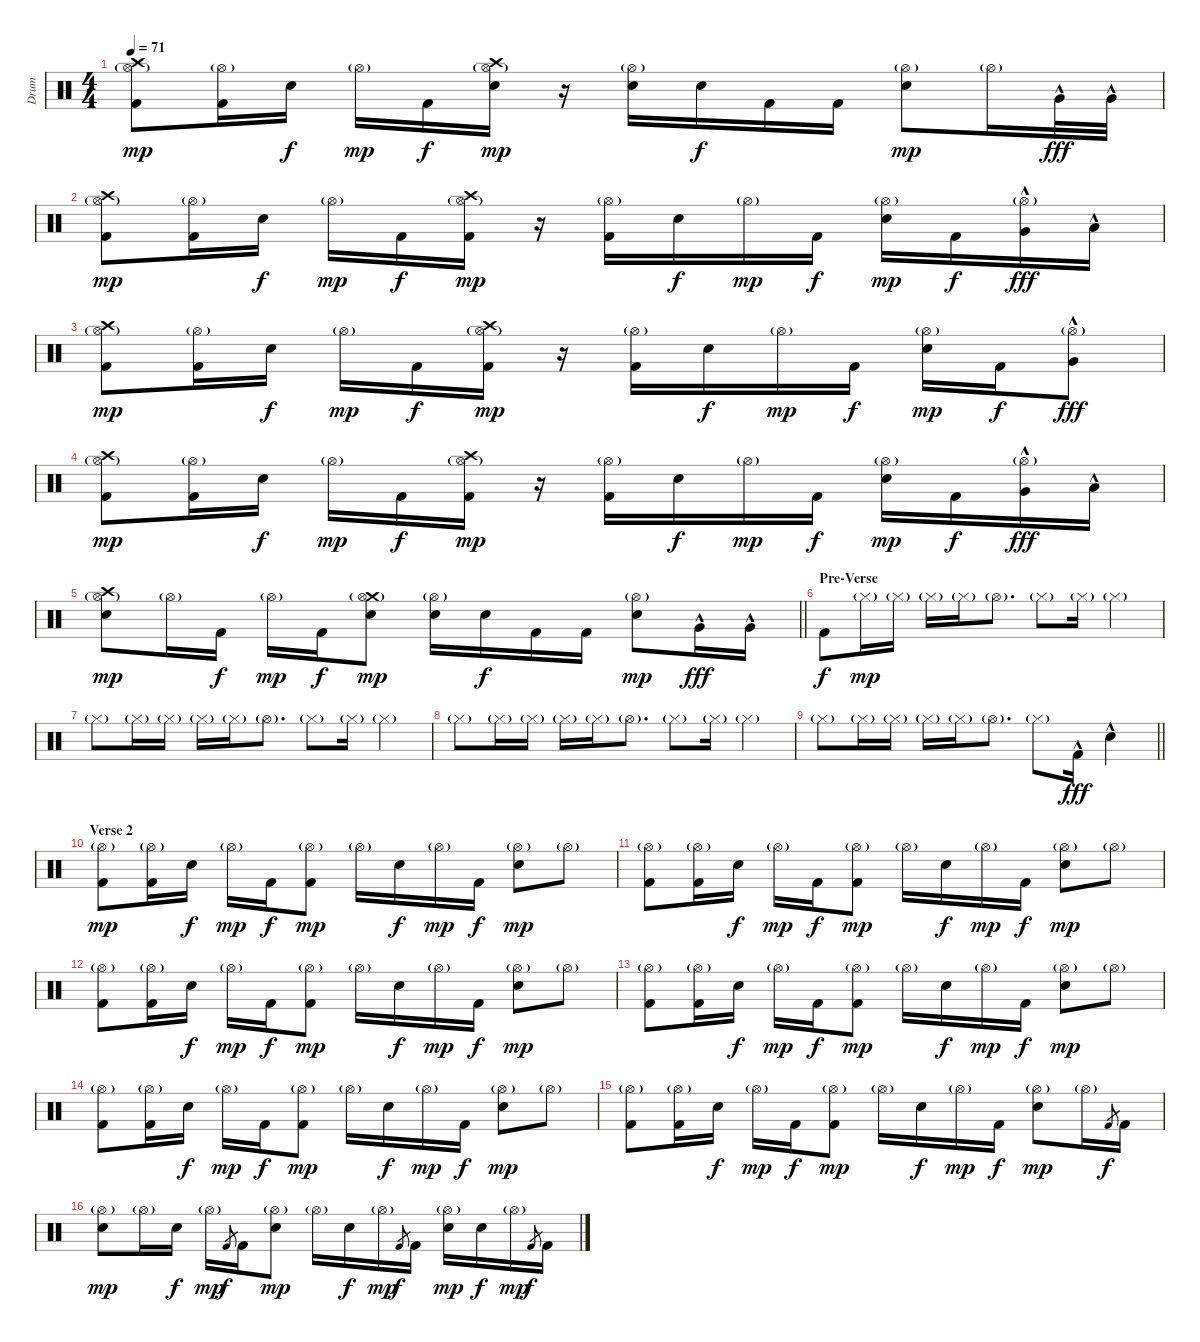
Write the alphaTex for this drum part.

\track ("Drum" "Drum") {instrument percussion}
\staff {score}
\articulation defaults
\ts (4 4)
\tempo 71
\clef neutral
\ks c
("Crash high (hit)" "Hi-Hat (open)"{g} "Kick (hit) 2").8{dy mp} ("Hi-Hat (open)"{g} "Kick (hit) 2").16 "Electric Snare (hit)".16{dy f} "Hi-Hat (open)"{g}.16{dy mp} "Kick (hit) 2".16{dy f} ("Crash high (hit)" "Hi-Hat (open)"{g} "Electric Snare (hit)").16{dy mp} r.16 ("Hi-Hat (open)"{g} "Electric Snare (hit)").16 "Electric Snare (hit)".16{dy f} "Kick (hit) 2".16 "Kick (hit) 2".16 ("Hi-Hat (open)"{g} "Electric Snare (hit)").8{dy mp} "Hi-Hat (open)"{g}.16 "Very Low Tom (hit)"{hac}.32{dy fff} "Very Low Tom (hit)"{hac}.32 |
("Crash high (hit)" "Hi-Hat (open)"{g} "Kick (hit) 2").8{dy mp} ("Hi-Hat (open)"{g} "Kick (hit) 2").16 "Electric Snare (hit)".16{dy f} "Hi-Hat (open)"{g}.16{dy mp} "Kick (hit) 2".16{dy f} ("Crash high (hit)" "Hi-Hat (open)"{g} "Kick (hit) 2").16{dy mp} r.16 ("Hi-Hat (open)"{g} "Kick (hit) 2").16 "Electric Snare (hit)".16{dy f} "Hi-Hat (open)"{g}.16{dy mp} "Kick (hit) 2".16{dy f} ("Hi-Hat (open)"{g} "Electric Snare (hit)").16{dy mp} "Kick (hit) 2".16{dy f} ("Hi-Hat (open)"{g} "Very Low Tom (hit)"{hac}).16{dy fff} "Low Floor Tom (hit)"{hac}.16 |
("Crash high (hit)" "Hi-Hat (open)"{g} "Kick (hit) 2").8{dy mp} ("Hi-Hat (open)"{g} "Kick (hit) 2").16 "Electric Snare (hit)".16{dy f} "Hi-Hat (open)"{g}.16{dy mp} "Kick (hit) 2".16{dy f} ("Crash high (hit)" "Hi-Hat (open)"{g} "Kick (hit) 2").16{dy mp} r.16 ("Hi-Hat (open)"{g} "Kick (hit) 2").16 "Electric Snare (hit)".16{dy f} "Hi-Hat (open)"{g}.16{dy mp} "Kick (hit) 2".16{dy f} ("Hi-Hat (open)"{g} "Electric Snare (hit)").16{dy mp} "Kick (hit) 2".16{dy f} ("Hi-Hat (open)"{g} "Very Low Tom (hit)"{hac}).8{dy fff} |
("Crash high (hit)" "Hi-Hat (open)"{g} "Kick (hit) 2").8{dy mp} ("Hi-Hat (open)"{g} "Kick (hit) 2").16 "Electric Snare (hit)".16{dy f} "Hi-Hat (open)"{g}.16{dy mp} "Kick (hit) 2".16{dy f} ("Crash high (hit)" "Hi-Hat (open)"{g} "Kick (hit) 2").16{dy mp} r.16 ("Hi-Hat (open)"{g} "Kick (hit) 2").16 "Electric Snare (hit)".16{dy f} "Hi-Hat (open)"{g}.16{dy mp} "Kick (hit) 2".16{dy f} ("Hi-Hat (open)"{g} "Electric Snare (hit)").16{dy mp} "Kick (hit) 2".16{dy f} ("Hi-Hat (open)"{g} "Very Low Tom (hit)"{hac}).16{dy fff} "Low Floor Tom (hit)"{hac}.16 |
\barLineRight lightlight
("Crash high (hit)" "Hi-Hat (open)"{g} "Electric Snare (hit)").8{dy mp} "Hi-Hat (open)"{g}.16 "Kick (hit) 2".16{dy f} "Hi-Hat (open)"{g}.16{dy mp} "Kick (hit) 2".16{dy f} ("Crash medium (hit)" "Hi-Hat (open)"{g} "Electric Snare (hit)").8{dy mp} ("Hi-Hat (open)"{g} "Electric Snare (hit)").16 "Electric Snare (hit)".16{dy f} "Kick (hit) 2".16 "Kick (hit) 2".16 ("Hi-Hat (open)"{g} "Electric Snare (hit)").8{dy mp} "Very Low Tom (hit)"{hac}.16{dy fff} "Very Low Tom (hit)"{hac}.16 |
\section ("" "Pre-Verse")
"Kick (hit) 2".8{dy f} "Hi-Hat (closed)"{g}.16{dy mp} "Hi-Hat (closed)"{g}.16 "Hi-Hat (closed)"{g}.16 "Hi-Hat (closed)"{g}.16 "Hi-Hat (open)"{g}.8{d} "Hi-Hat (closed)"{g}.8 "Hi-Hat (closed)"{g}.16 "Hi-Hat (closed)"{g}.4 |
"Hi-Hat (closed)"{g}.8 "Hi-Hat (closed)"{g}.16 "Hi-Hat (closed)"{g}.16 "Hi-Hat (closed)"{g}.16 "Hi-Hat (closed)"{g}.16 "Hi-Hat (open)"{g}.8{d} "Hi-Hat (closed)"{g}.8 "Hi-Hat (closed)"{g}.16 "Hi-Hat (closed)"{g}.4 |
"Hi-Hat (closed)"{g}.8 "Hi-Hat (closed)"{g}.16 "Hi-Hat (closed)"{g}.16 "Hi-Hat (closed)"{g}.16 "Hi-Hat (closed)"{g}.16 "Hi-Hat (open)"{g}.8{d} "Hi-Hat (closed)"{g}.8 "Hi-Hat (closed)"{g}.16 "Hi-Hat (closed)"{g}.4 |
\barLineRight lightlight "Hi-Hat (closed)"{g}.8 "Hi-Hat (closed)"{g}.16 "Hi-Hat (closed)"{g}.16 "Hi-Hat (closed)"{g}.16 "Hi-Hat (closed)"{g}.16 "Hi-Hat (open)"{g}.8{d} "Hi-Hat (closed)"{g}.8 "Kick (hit) 2"{hac}.16{dy fff} "Electric Snare (hit)"{hac}.4
|
\section ("" "Verse 2")
("Hi-Hat (open)"{g} "Kick (hit) 2").8{dy mp} ("Hi-Hat (open)"{g} "Kick (hit) 2").16 "Electric Snare (hit)".16{dy f} "Hi-Hat (open)"{g}.16{dy mp} "Kick (hit) 2".16{dy f} ("Hi-Hat (open)"{g} "Kick (hit) 2").8{dy mp} "Hi-Hat (open)"{g}.16 "Electric Snare (hit)".16{dy f} "Hi-Hat (open)"{g}.16{dy mp} "Kick (hit) 2".16{dy f} ("Hi-Hat (open)"{g} "Electric Snare (hit)").8{dy mp} "Hi-Hat (open)"{g}.8 |
("Hi-Hat (open)"{g} "Kick (hit) 2").8 ("Hi-Hat (open)"{g} "Kick (hit) 2").16 "Electric Snare (hit)".16{dy f} "Hi-Hat (open)"{g}.16{dy mp} "Kick (hit) 2".16{dy f} ("Hi-Hat (open)"{g} "Kick (hit) 2").8{dy mp} "Hi-Hat (open)"{g}.16 "Electric Snare (hit)".16{dy f} "Hi-Hat (open)"{g}.16{dy mp} "Kick (hit) 2".16{dy f} ("Hi-Hat (open)"{g} "Electric Snare (hit)").8{dy mp} "Hi-Hat (open)"{g}.8 |
("Hi-Hat (open)"{g} "Kick (hit) 2").8 ("Hi-Hat (open)"{g} "Kick (hit) 2").16 "Electric Snare (hit)".16{dy f} "Hi-Hat (open)"{g}.16{dy mp} "Kick (hit) 2".16{dy f} ("Hi-Hat (open)"{g} "Kick (hit) 2").8{dy mp} "Hi-Hat (open)"{g}.16 "Electric Snare (hit)".16{dy f} "Hi-Hat (open)"{g}.16{dy mp} "Kick (hit) 2".16{dy f} ("Hi-Hat (open)"{g} "Electric Snare (hit)").8{dy mp} "Hi-Hat (open)"{g}.8 |
("Hi-Hat (open)"{g} "Kick (hit) 2").8 ("Hi-Hat (open)"{g} "Kick (hit) 2").16 "Electric Snare (hit)".16{dy f} "Hi-Hat (open)"{g}.16{dy mp} "Kick (hit) 2".16{dy f} ("Hi-Hat (open)"{g} "Kick (hit) 2").8{dy mp} "Hi-Hat (open)"{g}.16 "Electric Snare (hit)".16{dy f} "Hi-Hat (open)"{g}.16{dy mp} "Kick (hit) 2".16{dy f} ("Hi-Hat (open)"{g} "Electric Snare (hit)").8{dy mp} "Hi-Hat (open)"{g}.8 |
("Hi-Hat (open)"{g} "Kick (hit) 2").8 ("Hi-Hat (open)"{g} "Kick (hit) 2").16 "Electric Snare (hit)".16{dy f} "Hi-Hat (open)"{g}.16{dy mp} "Kick (hit) 2".16{dy f} ("Hi-Hat (open)"{g} "Kick (hit) 2").8{dy mp} "Hi-Hat (open)"{g}.16 "Electric Snare (hit)".16{dy f} "Hi-Hat (open)"{g}.16{dy mp} "Kick (hit) 2".16{dy f} ("Hi-Hat (open)"{g} "Electric Snare (hit)").8{dy mp} "Hi-Hat (open)"{g}.8 |
("Hi-Hat (open)"{g} "Kick (hit) 2").8 ("Hi-Hat (open)"{g} "Kick (hit) 2").16 "Electric Snare (hit)".16{dy f} "Hi-Hat (open)"{g}.16{dy mp} "Kick (hit) 2".16{dy f} ("Hi-Hat (open)"{g} "Kick (hit) 2").8{dy mp} "Hi-Hat (open)"{g}.16 "Electric Snare (hit)".16{dy f} "Hi-Hat (open)"{g}.16{dy mp} "Kick (hit) 2".16{dy f} ("Hi-Hat (open)"{g} "Electric Snare (hit)").8{dy mp} "Hi-Hat (open)"{g}.16 "Kick (hit) 2".8{gr dy f} "Kick (hit) 2".16 |
("Hi-Hat (open)"{g} "Electric Snare (hit)").8{dy mp} "Hi-Hat (open)"{g}.16 "Electric Snare (hit)".16{dy f} "Hi-Hat (open)"{g}.16{dy mp} "Kick (hit) 2".8{gr dy f} "Kick (hit) 2".16 ("Hi-Hat (open)"{g} "Electric Snare (hit)").8{dy mp} "Hi-Hat (open)"{g}.16 "Electric Snare (hit)".16{dy f} "Hi-Hat (open)"{g}.16{dy mp} "Kick (hit) 2".8{gr dy f} "Kick (hit) 2".16 ("Hi-Hat (open)"{g} "Electric Snare (hit)").16{dy mp} "Electric Snare (hit)".16{dy f} "Hi-Hat (open)"{g}.16{dy mp} "Kick (hit) 2".8{gr dy f} "Kick (hit) 2".16
